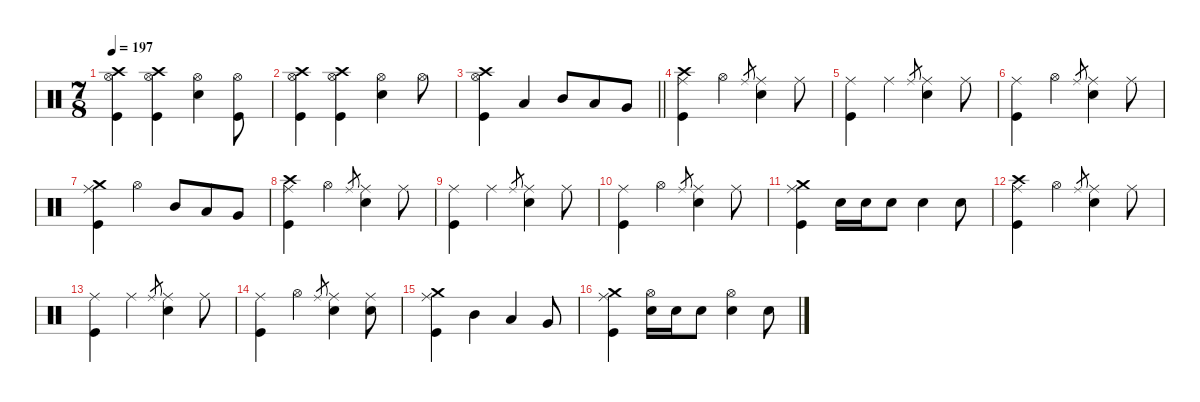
\defaultSystemsLayout 4
\hideDynamics
\bracketExtendMode nobrackets
\singleTrackTrackNamePolicy hidden
\multiTrackTrackNamePolicy hidden
\firstSystemTrackNameMode fullname
\firstSystemTrackNameOrientation horizontal
\otherSystemsTrackNameOrientation horizontal
\track ("Drums" "drm.") {defaultSystemsLayout 4 instrument percussion}
\staff {score}
\articulation defaults
\ts (7 8)
\tempo 197
\clef neutral
\ks c
("Hi-Hat (open)" "Crash high (hit)" "Kick (hit)").4{dy f beam Down} ("Hi-Hat (open)" "Crash high (hit)" "Kick (hit)").4{beam Down} ("Hi-Hat (open)" "Snare (hit) 2").4{beam Down} ("Hi-Hat (open)" "Kick (hit)").8{beam Down} |
("Hi-Hat (open)" "Crash high (hit)" "Kick (hit)").4{beam Down} ("Hi-Hat (open)" "Crash high (hit)" "Kick (hit)").4{beam Down} ("Hi-Hat (open)" "Snare (hit) 2").4{beam Down} "Hi-Hat (open)".8{beam Down} |
\barLineRight lightlight
("Hi-Hat (open)" "Crash high (hit)" "Kick (hit)").4{beam Down} "Low Tom (hit)".4{beam Up} "Mid Tom (hit)".8{beam Up} "Low Tom (hit)".8{beam Up} "Very Low Tom (hit)".8{beam Up} |
("Crash high (hit)" "Ride (middle)" "Kick (hit)").4{dy mf beam Down} "Hi-Hat (open)".4{dy f beam Down} "Ride (middle)".8{gr dy mf beam Up} ("Ride (middle)" "Snare (hit) 2").4{dy f beam Down} "Ride (middle)".8{beam Down} |
("Ride (middle)" "Kick (hit)").4{beam Down} "Ride (middle)".4{beam Down} "Ride (middle)".8{gr dy mf beam Up} ("Ride (middle)" "Snare (hit) 2").4{dy f beam Down} "Ride (middle)".8{beam Down} |
("Ride (middle)" "Kick (hit)").4{beam Down} "Hi-Hat (open)".4{beam Down} "Ride (middle)".8{gr dy mf beam Up} ("Ride (middle)" "Snare (hit) 2").4{dy f beam Down} "Ride (middle)".8{beam Down} |
("Crash medium (hit)" "Ride (middle)" "Kick (hit)").4{dy mp beam Down} "Hi-Hat (open)".4{dy f beam Down} "Mid Tom (hit)".8{beam Up} "Low Tom (hit)".8{beam Up} "Very Low Tom (hit)".8{beam Up} |
("Crash high (hit)" "Ride (middle)" "Kick (hit)").4{dy mf beam Down} "Hi-Hat (open)".4{dy f beam Down} "Ride (middle)".8{gr dy mf beam Up} ("Ride (middle)" "Snare (hit) 2").4{dy f beam Down} "Ride (middle)".8{beam Down} |
("Ride (middle)" "Kick (hit)").4{beam Down} "Ride (middle)".4{beam Down} "Ride (middle)".8{gr dy mf beam Up} ("Ride (middle)" "Snare (hit) 2").4{dy f beam Down} "Ride (middle)".8{beam Down} |
("Ride (middle)" "Kick (hit)").4{beam Down} "Hi-Hat (open)".4{beam Down} "Ride (middle)".8{gr dy mf beam Up} ("Ride (middle)" "Snare (hit) 2").4{dy f beam Down} "Ride (middle)".8{beam Down} |
("Crash medium (hit)" "Ride (middle)" "Kick (hit)").4{dy mp beam Down} "Snare (hit) 2".16{beam Down} "Snare (hit) 2".16{beam Down} "Snare (hit) 2".8{dy mf beam Down} "Snare (hit) 2".4{dy f beam Down} "Snare (hit) 2".8{beam Down} |
("Crash high (hit)" "Ride (middle)" "Kick (hit)").4{dy mf beam Down} "Hi-Hat (open)".4{dy f beam Down} "Ride (middle)".8{gr dy mf beam Up} ("Ride (middle)" "Snare (hit) 2").4{dy f beam Down} "Ride (middle)".8{beam Down} |
("Ride (middle)" "Kick (hit)").4{beam Down} "Ride (middle)".4{beam Down} "Ride (middle)".8{gr dy mf beam Up} ("Ride (middle)" "Snare (hit) 2").4{dy f beam Down} "Ride (middle)".8{beam Down} |
("Ride (middle)" "Kick (hit)").4{beam Down} "Hi-Hat (open)".4{beam Down} "Ride (middle)".8{gr dy mf beam Up} ("Ride (middle)" "Snare (hit) 2").4{dy f beam Down} ("Ride (middle)" "Snare (hit) 2").8{beam Down} |
("Crash medium (hit)" "Ride (middle)" "Kick (hit)").4{dy mp beam Down} "Mid Tom (hit)".4{dy f beam Down} "Low Tom (hit)".4{beam Up} "Very Low Tom (hit)".8{beam Up} |
("Crash medium (hit)" "Ride (middle)" "Kick (hit)").4{dy mp beam Down} ("Hi-Hat (open)" "Snare (hit) 2").16{dy f beam Down} "Snare (hit) 2".16{dy mp beam Down} "Snare (hit) 2".8{dy mf beam Down} ("Hi-Hat (open)" "Snare (hit) 2").4{dy f beam Down} "Snare (hit) 2".8{beam Down}
